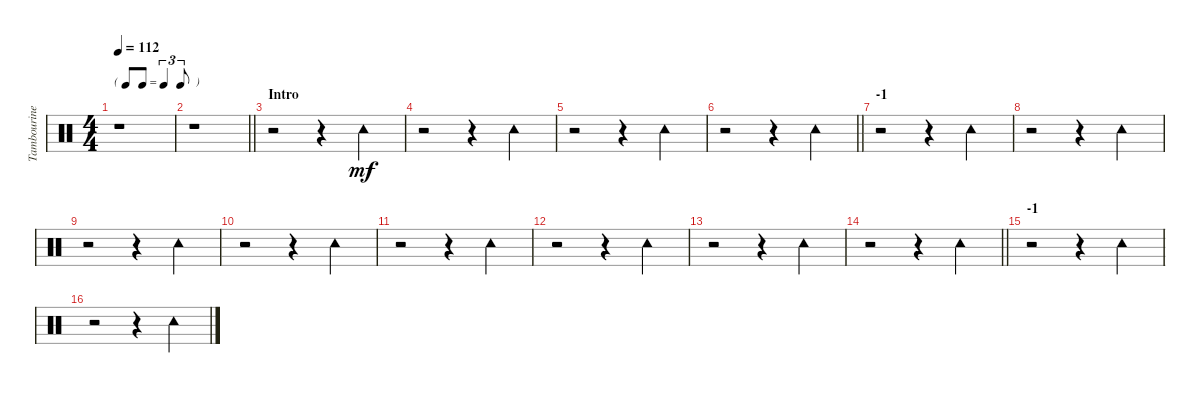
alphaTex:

\track ("Tambourine" "Tambourine") {instrument percussion}
\staff {score}
\articulation defaults
\ts (4 4)
\tf triplet8th
\tempo 112
\clef neutral
\ks c
r.1{dy mf} |
\barLineRight lightlight
r.1 |
\section ("" "Intro")
r.2 r.4 "Tambourine (hit)".4 |
r.2 r.4 "Tambourine (hit)".4 |
r.2 r.4 "Tambourine (hit)".4 |
\barLineRight lightlight
r.2 r.4 "Tambourine (hit)".4 |
\section ("" "-1")
r.2 r.4 "Tambourine (hit)".4 |
r.2 r.4 "Tambourine (hit)".4 |
r.2 r.4 "Tambourine (hit)".4 |
r.2 r.4 "Tambourine (hit)".4 |
r.2 r.4 "Tambourine (hit)".4 |
r.2 r.4 "Tambourine (hit)".4 |
r.2 r.4 "Tambourine (hit)".4 |
\barLineRight lightlight
r.2 r.4 "Tambourine (hit)".4 |
\section ("" "-1")
r.2 r.4 "Tambourine (hit)".4 |
r.2 r.4 "Tambourine (hit)".4
